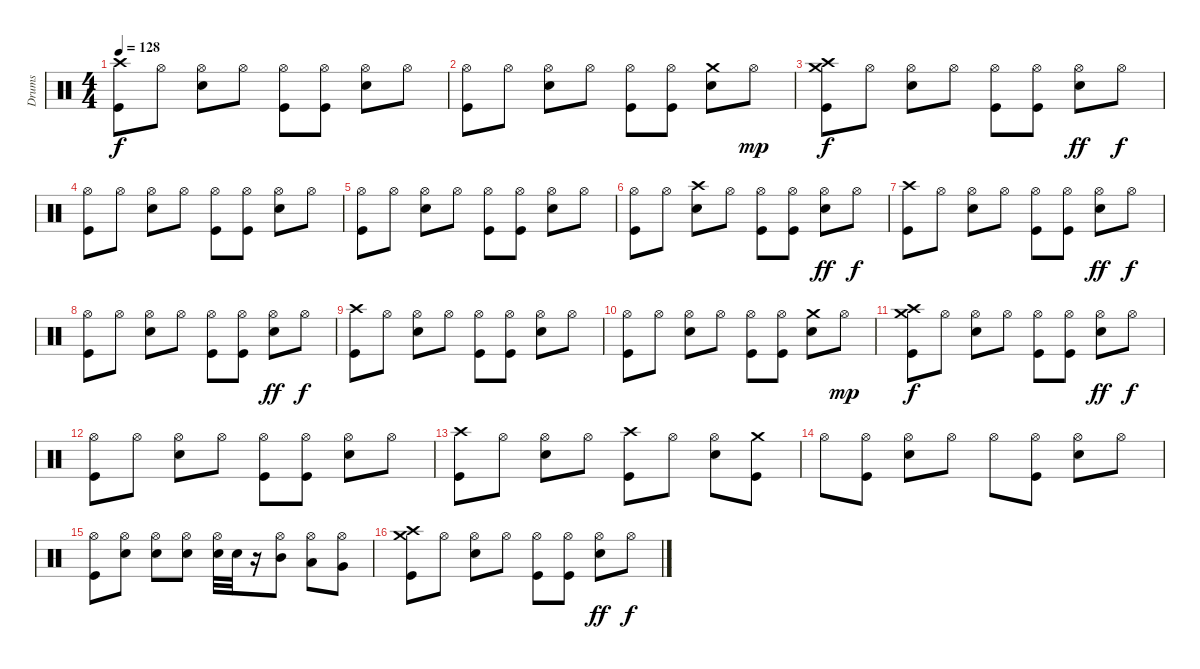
\track ("Drums" "Drums") {instrument percussion}
\staff {score}
\articulation defaults
\ts (4 4)
\tempo 128
\clef neutral
\ks c
("Crash high (hit)" "Kick (hit)").8{dy f} "Hi-Hat (open)".8 ("Hi-Hat (open)" "Snare (hit) 2").8 "Hi-Hat (open)".8 ("Hi-Hat (open)" "Kick (hit)").8 ("Hi-Hat (open)" "Kick (hit)").8 ("Hi-Hat (open)" "Snare (hit) 2").8 "Hi-Hat (open)".8 |
("Hi-Hat (open)" "Kick (hit)").8 "Hi-Hat (open)".8 ("Hi-Hat (open)" "Snare (hit) 2").8 "Hi-Hat (open)".8 ("Hi-Hat (open)" "Kick (hit)").8 ("Hi-Hat (open)" "Kick (hit)").8 ("Crash medium (hit)" "Snare (hit) 2").8 "Hi-Hat (open)".8{dy mp} |
("Crash high (hit)" "Crash medium (hit)" "Kick (hit)").8{dy f} "Hi-Hat (open)".8 ("Hi-Hat (open)" "Snare (hit) 2").8 "Hi-Hat (open)".8 ("Hi-Hat (open)" "Kick (hit)").8 ("Hi-Hat (open)" "Kick (hit)").8 ("Hi-Hat (open)" "Snare (hit) 2").8{dy ff} "Hi-Hat (open)".8{dy f} |
("Hi-Hat (open)" "Kick (hit)").8 "Hi-Hat (open)".8 ("Hi-Hat (open)" "Snare (hit) 2").8 "Hi-Hat (open)".8 ("Hi-Hat (open)" "Kick (hit)").8 ("Hi-Hat (open)" "Kick (hit)").8 ("Hi-Hat (open)" "Snare (hit) 2").8 "Hi-Hat (open)".8 |
("Hi-Hat (open)" "Kick (hit)").8 "Hi-Hat (open)".8 ("Hi-Hat (open)" "Snare (hit) 2").8 "Hi-Hat (open)".8 ("Hi-Hat (open)" "Kick (hit)").8 ("Hi-Hat (open)" "Kick (hit)").8 ("Hi-Hat (open)" "Snare (hit) 2").8 "Hi-Hat (open)".8 |
("Hi-Hat (open)" "Kick (hit)").8 "Hi-Hat (open)".8 ("Crash high (hit)" "Snare (hit) 2").8 "Hi-Hat (open)".8 ("Hi-Hat (open)" "Kick (hit)").8 ("Hi-Hat (open)" "Kick (hit)").8 ("Hi-Hat (open)" "Snare (hit) 2").8{dy ff} "Hi-Hat (open)".8{dy f} |
("Crash high (hit)" "Kick (hit)").8 "Hi-Hat (open)".8 ("Hi-Hat (open)" "Snare (hit) 2").8 "Hi-Hat (open)".8 ("Hi-Hat (open)" "Kick (hit)").8 ("Hi-Hat (open)" "Kick (hit)").8 ("Hi-Hat (open)" "Snare (hit) 2").8{dy ff} "Hi-Hat (open)".8{dy f} |
("Hi-Hat (open)" "Kick (hit)").8 "Hi-Hat (open)".8 ("Hi-Hat (open)" "Snare (hit) 2").8 "Hi-Hat (open)".8 ("Hi-Hat (open)" "Kick (hit)").8 ("Hi-Hat (open)" "Kick (hit)").8 ("Hi-Hat (open)" "Snare (hit) 2").8{dy ff} "Hi-Hat (open)".8{dy f} |
("Crash high (hit)" "Kick (hit)").8 "Hi-Hat (open)".8 ("Hi-Hat (open)" "Snare (hit) 2").8 "Hi-Hat (open)".8 ("Hi-Hat (open)" "Kick (hit)").8 ("Hi-Hat (open)" "Kick (hit)").8 ("Hi-Hat (open)" "Snare (hit) 2").8 "Hi-Hat (open)".8 |
("Hi-Hat (open)" "Kick (hit)").8 "Hi-Hat (open)".8 ("Hi-Hat (open)" "Snare (hit) 2").8 "Hi-Hat (open)".8 ("Hi-Hat (open)" "Kick (hit)").8 ("Hi-Hat (open)" "Kick (hit)").8 ("Crash medium (hit)" "Snare (hit) 2").8 "Hi-Hat (open)".8{dy mp} |
("Crash high (hit)" "Crash medium (hit)" "Kick (hit)").8{dy f} "Hi-Hat (open)".8 ("Hi-Hat (open)" "Snare (hit) 2").8 "Hi-Hat (open)".8 ("Hi-Hat (open)" "Kick (hit)").8 ("Hi-Hat (open)" "Kick (hit)").8 ("Hi-Hat (open)" "Snare (hit) 2").8{dy ff} "Hi-Hat (open)".8{dy f} |
("Hi-Hat (open)" "Kick (hit)").8 "Hi-Hat (open)".8 ("Hi-Hat (open)" "Snare (hit) 2").8 "Hi-Hat (open)".8 ("Hi-Hat (open)" "Kick (hit)").8 ("Hi-Hat (open)" "Kick (hit)").8 ("Hi-Hat (open)" "Snare (hit) 2").8 "Hi-Hat (open)".8 |
("Crash high (hit)" "Kick (hit)").8 "Hi-Hat (open)".8 ("Hi-Hat (open)" "Snare (hit) 2").8 "Hi-Hat (open)".8 ("Crash high (hit)" "Kick (hit)").8 "Hi-Hat (open)".8 ("Hi-Hat (open)" "Snare (hit) 2").8 ("Crash medium (hit)" "Kick (hit)").8 |
"Hi-Hat (open)".8 ("Hi-Hat (open)" "Kick (hit)").8 ("Hi-Hat (open)" "Snare (hit) 2").8 "Hi-Hat (open)".8 "Hi-Hat (open)".8 ("Hi-Hat (open)" "Kick (hit)").8 ("Hi-Hat (open)" "Snare (hit) 2").8 "Hi-Hat (open)".8 |
("Hi-Hat (open)" "Kick (hit)").8 ("Hi-Hat (open)" "Snare (hit) 2").8 ("Hi-Hat (open)" "Snare (hit) 2").8 ("Hi-Hat (open)" "Snare (hit) 2").8 ("Hi-Hat (open)" "Snare (hit) 2").32 "Snare (hit) 2".32 r.16 ("Hi-Hat (open)" "Mid Tom (hit)").8 ("Hi-Hat (open)" "Low Tom (hit)").8 ("Hi-Hat (open)" "Very Low Tom (hit)").8 |
("Crash high (hit)" "Crash medium (hit)" "Kick (hit)").8 "Hi-Hat (open)".8 ("Hi-Hat (open)" "Snare (hit) 2").8 "Hi-Hat (open)".8 ("Hi-Hat (open)" "Kick (hit)").8 ("Hi-Hat (open)" "Kick (hit)").8 ("Hi-Hat (open)" "Snare (hit) 2").8{dy ff} "Hi-Hat (open)".8{dy f}
